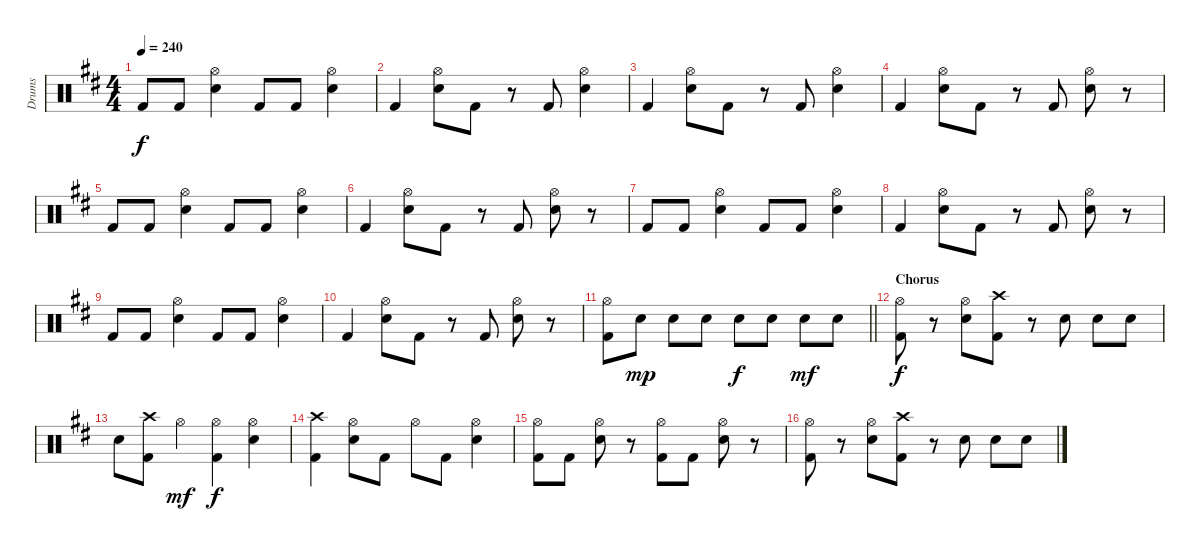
\track ("Drums" "Drums") {instrument percussion}
\staff {score}
\articulation defaults
\ts (4 4)
\tempo 240
\clef neutral
\ks d "Kick (hit) 2".8{dy f} "Kick (hit) 2".8
("Hi-Hat (open)" "Electric Snare (hit)").4 "Kick (hit) 2".8 "Kick (hit) 2".8 ("Hi-Hat (open)" "Electric Snare (hit)").4 |
"Kick (hit) 2".4 ("Hi-Hat (open)" "Electric Snare (hit)").8 "Kick (hit) 2".8 r.8 "Kick (hit) 2".8 ("Hi-Hat (open)" "Electric Snare (hit)").4 |
"Kick (hit) 2".4 ("Hi-Hat (open)" "Electric Snare (hit)").8 "Kick (hit) 2".8 r.8 "Kick (hit) 2".8 ("Hi-Hat (open)" "Electric Snare (hit)").4 |
"Kick (hit) 2".4 ("Hi-Hat (open)" "Electric Snare (hit)").8 "Kick (hit) 2".8 r.8 "Kick (hit) 2".8 ("Hi-Hat (open)" "Electric Snare (hit)").8 r.8 |
"Kick (hit) 2".8 "Kick (hit) 2".8 ("Hi-Hat (open)" "Electric Snare (hit)").4 "Kick (hit) 2".8 "Kick (hit) 2".8 ("Hi-Hat (open)" "Electric Snare (hit)").4 |
"Kick (hit) 2".4 ("Hi-Hat (open)" "Electric Snare (hit)").8 "Kick (hit) 2".8 r.8 "Kick (hit) 2".8 ("Hi-Hat (open)" "Electric Snare (hit)").8 r.8 |
"Kick (hit) 2".8 "Kick (hit) 2".8 ("Hi-Hat (open)" "Electric Snare (hit)").4 "Kick (hit) 2".8 "Kick (hit) 2".8 ("Hi-Hat (open)" "Electric Snare (hit)").4 |
"Kick (hit) 2".4 ("Hi-Hat (open)" "Electric Snare (hit)").8 "Kick (hit) 2".8 r.8 "Kick (hit) 2".8 ("Hi-Hat (open)" "Electric Snare (hit)").8 r.8 |
"Kick (hit) 2".8 "Kick (hit) 2".8 ("Hi-Hat (open)" "Electric Snare (hit)").4 "Kick (hit) 2".8 "Kick (hit) 2".8 ("Hi-Hat (open)" "Electric Snare (hit)").4 |
"Kick (hit) 2".4 ("Hi-Hat (open)" "Electric Snare (hit)").8 "Kick (hit) 2".8 r.8 "Kick (hit) 2".8 ("Hi-Hat (open)" "Electric Snare (hit)").8 r.8 |
\barLineRight lightlight
("Hi-Hat (open)" "Kick (hit) 2").8 "Electric Snare (hit)".8{dy mp} "Electric Snare (hit)".8 "Electric Snare (hit)".8 "Electric Snare (hit)".8{dy f} "Electric Snare (hit)".8 "Electric Snare (hit)".8{dy mf} "Electric Snare (hit)".8 |
\section ("" "Chorus")
("Hi-Hat (open)" "Kick (hit) 2").8{dy f} r.8 ("Hi-Hat (open)" "Electric Snare (hit)").8 ("Crash high (hit)" "Kick (hit) 2").8 r.8 "Electric Snare (hit)".8 "Electric Snare (hit)".8 "Electric Snare (hit)".8 |
"Electric Snare (hit)".8 ("Crash high (hit)" "Kick (hit) 2").8 "Hi-Hat (open)".4{dy mf} ("Hi-Hat (open)" "Kick (hit) 2").4{dy f} ("Hi-Hat (open)" "Electric Snare (hit)").4 |
("Crash high (hit)" "Kick (hit) 2").4 ("Hi-Hat (open)" "Electric Snare (hit)").8 "Kick (hit) 2".8 "Hi-Hat (open)".8 "Kick (hit) 2".8 ("Hi-Hat (open)" "Electric Snare (hit)").4 |
("Hi-Hat (open)" "Kick (hit) 2").8 "Kick (hit) 2".8 ("Hi-Hat (open)" "Electric Snare (hit)").8 r.8 ("Hi-Hat (open)" "Kick (hit) 2").8 "Kick (hit) 2".8 ("Hi-Hat (open)" "Electric Snare (hit)").8 r.8 |
("Hi-Hat (open)" "Kick (hit) 2").8 r.8 ("Hi-Hat (open)" "Electric Snare (hit)").8 ("Crash high (hit)" "Kick (hit) 2").8 r.8 "Electric Snare (hit)".8 "Electric Snare (hit)".8 "Electric Snare (hit)".8
